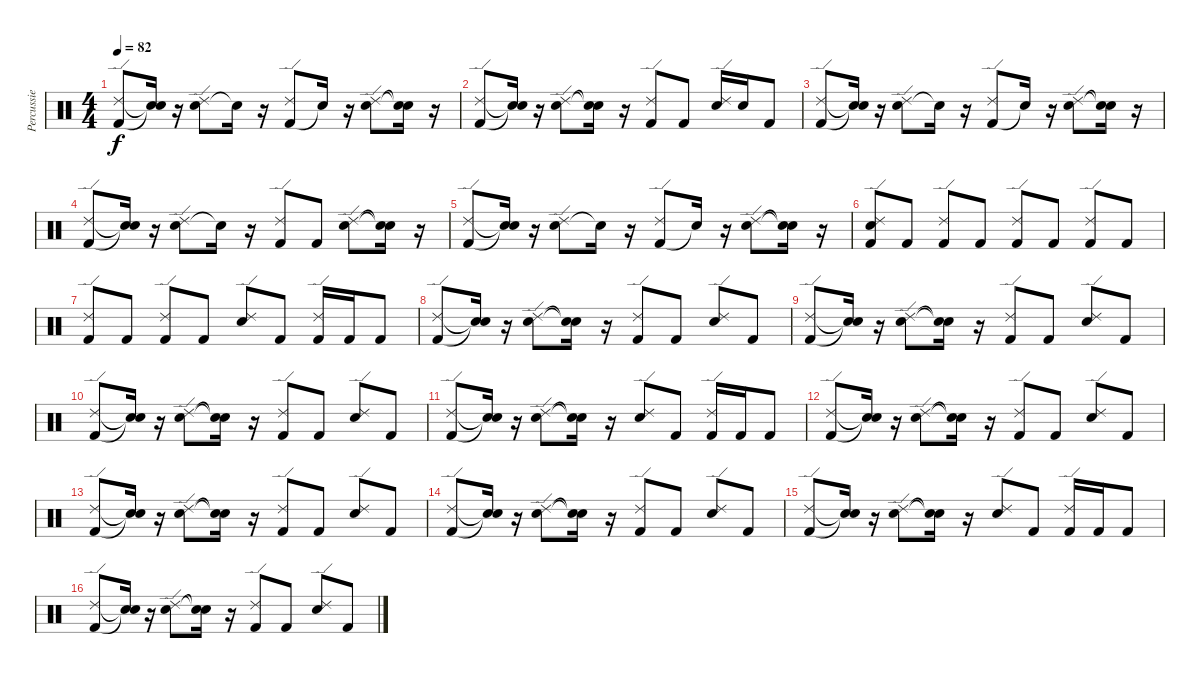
\track ("Percussie" "Percussie") {instrument percussion}
\staff {score}
\articulation defaults
\ts (4 4)
\tempo 82
\clef neutral
\ks c
("Kick (hit) 2" "Ride (edge) 2").8{dy f} ("Snare (hit)"{t} "Snare (hit)"{t}).16 r.16 ("Snare (hit) 2" "Ride (edge) 2").8 "Snare (hit)"{t}.16 r.16 ("Kick (hit) 2" "Ride (edge) 2").8 "Snare (hit)"{t}.16 r.16 ("Snare (hit) 2" "Ride (edge) 2").8 ("Snare (hit)"{t} "Snare (hit)"{t}).16 r.16 |
("Kick (hit) 2" "Ride (edge) 2").8 ("Snare (hit)"{t} "Snare (hit)"{t}).16 r.16 ("Snare (hit) 2" "Ride (edge) 2").8 ("Snare (hit)"{t} "Snare (hit)"{t}).16 r.16 ("Kick (hit) 2" "Ride (edge) 2").8 "Kick (hit) 2".8 ("Snare (hit) 2" "Ride (edge) 2").16 "Snare (hit) 2".16 "Kick (hit) 2".8 |
("Kick (hit) 2" "Ride (edge) 2").8 ("Snare (hit)"{t} "Snare (hit)"{t}).16 r.16 ("Snare (hit) 2" "Ride (edge) 2").8 "Snare (hit)"{t}.16 r.16 ("Kick (hit) 2" "Ride (edge) 2").8 "Snare (hit)"{t}.16 r.16 ("Snare (hit) 2" "Ride (edge) 2").8 ("Snare (hit)"{t} "Snare (hit)"{t}).16 r.16 |
("Kick (hit) 2" "Ride (edge) 2").8 ("Snare (hit)"{t} "Snare (hit)"{t}).16 r.16 ("Snare (hit) 2" "Ride (edge) 2").8 "Snare (hit)"{t}.16 r.16 ("Kick (hit) 2" "Ride (edge) 2").8 "Kick (hit) 2".8 ("Snare (hit) 2" "Ride (edge) 2").8 ("Snare (hit)"{t} "Snare (hit)"{t}).16 r.16 |
("Kick (hit) 2" "Ride (edge) 2").8 ("Snare (hit)"{t} "Snare (hit)"{t}).16 r.16 ("Snare (hit) 2" "Ride (edge) 2").8 "Snare (hit)"{t}.16 r.16 ("Kick (hit) 2" "Ride (edge) 2").8 "Snare (hit)"{t}.16 r.16 ("Snare (hit) 2" "Ride (edge) 2").8 ("Snare (hit)"{t} "Snare (hit)"{t}).16 r.16 |
("Kick (hit) 2" "Snare (hit) 2" "Ride (edge) 2").8 "Kick (hit) 2".8 ("Kick (hit) 2" "Ride (edge) 2").8 "Kick (hit) 2".8 ("Kick (hit) 2" "Ride (edge) 2").8 "Kick (hit) 2".8 ("Kick (hit) 2" "Ride (edge) 2").8 "Kick (hit) 2".8 |
("Kick (hit) 2" "Ride (edge) 2").8 "Kick (hit) 2".8 ("Kick (hit) 2" "Ride (edge) 2").8 "Kick (hit) 2".8 ("Snare (hit) 2" "Ride (edge) 2").8 "Kick (hit) 2".8 ("Kick (hit) 2" "Ride (edge) 2").16 "Kick (hit) 2".16 "Kick (hit) 2".8 |
("Kick (hit) 2" "Ride (edge) 2").8 ("Snare (hit)"{t} "Snare (hit)"{t}).16 r.16 ("Snare (hit) 2" "Ride (edge) 2").8 ("Snare (hit)"{t} "Snare (hit)"{t}).16 r.16 ("Kick (hit) 2" "Ride (edge) 2").8 "Kick (hit) 2".8 ("Snare (hit) 2" "Ride (edge) 2").8 "Kick (hit) 2".8 |
("Kick (hit) 2" "Ride (edge) 2").8 ("Snare (hit)"{t} "Snare (hit)"{t}).16 r.16 ("Snare (hit) 2" "Ride (edge) 2").8 ("Snare (hit)"{t} "Snare (hit)"{t}).16 r.16 ("Kick (hit) 2" "Ride (edge) 2").8 "Kick (hit) 2".8 ("Snare (hit) 2" "Ride (edge) 2").8 "Kick (hit) 2".8 |
("Kick (hit) 2" "Ride (edge) 2").8 ("Snare (hit)"{t} "Snare (hit)"{t}).16 r.16 ("Snare (hit) 2" "Ride (edge) 2").8 ("Snare (hit)"{t} "Snare (hit)"{t}).16 r.16 ("Kick (hit) 2" "Ride (edge) 2").8 "Kick (hit) 2".8 ("Snare (hit) 2" "Ride (edge) 2").8 "Kick (hit) 2".8 |
("Kick (hit) 2" "Ride (edge) 2").8 ("Snare (hit)"{t} "Snare (hit)"{t}).16 r.16 ("Snare (hit) 2" "Ride (edge) 2").8 ("Snare (hit)"{t} "Snare (hit)"{t}).16 r.16 ("Snare (hit) 2" "Ride (edge) 2").8 "Kick (hit) 2".8 ("Kick (hit) 2" "Ride (edge) 2").16 "Kick (hit) 2".16 "Kick (hit) 2".8 |
("Kick (hit) 2" "Ride (edge) 2").8 ("Snare (hit)"{t} "Snare (hit)"{t}).16 r.16 ("Snare (hit) 2" "Ride (edge) 2").8 ("Snare (hit)"{t} "Snare (hit)"{t}).16 r.16 ("Kick (hit) 2" "Ride (edge) 2").8 "Kick (hit) 2".8 ("Snare (hit) 2" "Ride (edge) 2").8 "Kick (hit) 2".8 |
("Kick (hit) 2" "Ride (edge) 2").8 ("Snare (hit)"{t} "Snare (hit)"{t}).16 r.16 ("Snare (hit) 2" "Ride (edge) 2").8 ("Snare (hit)"{t} "Snare (hit)"{t}).16 r.16 ("Kick (hit) 2" "Ride (edge) 2").8 "Kick (hit) 2".8 ("Snare (hit) 2" "Ride (edge) 2").8 "Kick (hit) 2".8 |
("Kick (hit) 2" "Ride (edge) 2").8 ("Snare (hit)"{t} "Snare (hit)"{t}).16 r.16 ("Snare (hit) 2" "Ride (edge) 2").8 ("Snare (hit)"{t} "Snare (hit)"{t}).16 r.16 ("Kick (hit) 2" "Ride (edge) 2").8 "Kick (hit) 2".8 ("Snare (hit) 2" "Ride (edge) 2").8 "Kick (hit) 2".8 |
("Kick (hit) 2" "Ride (edge) 2").8 ("Snare (hit)"{t} "Snare (hit)"{t}).16 r.16 ("Snare (hit) 2" "Ride (edge) 2").8 ("Snare (hit)"{t} "Snare (hit)"{t}).16 r.16 ("Snare (hit) 2" "Ride (edge) 2").8 "Kick (hit) 2".8 ("Kick (hit) 2" "Ride (edge) 2").16 "Kick (hit) 2".16 "Kick (hit) 2".8 |
("Kick (hit) 2" "Ride (edge) 2").8 ("Snare (hit)"{t} "Snare (hit)"{t}).16 r.16 ("Snare (hit) 2" "Ride (edge) 2").8 ("Snare (hit)"{t} "Snare (hit)"{t}).16 r.16 ("Kick (hit) 2" "Ride (edge) 2").8 "Kick (hit) 2".8 ("Snare (hit) 2" "Ride (edge) 2").8 "Kick (hit) 2".8
